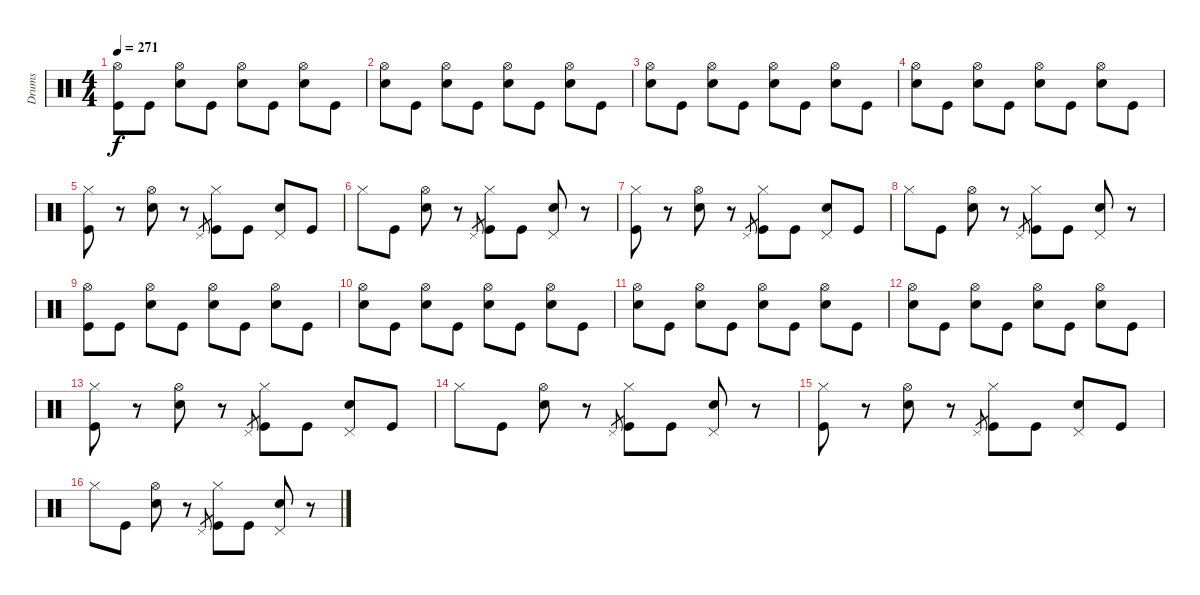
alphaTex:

\track ("Drums" "Drums") {instrument percussion}
\staff {score}
\articulation defaults
\ts (4 4)
\tempo 271
\clef neutral
\ks c
("Hi-Hat (open)" "Kick (hit)").8{dy f} "Kick (hit)".8 ("Hi-Hat (open)" "Electric Snare (hit)").8 "Kick (hit)".8 ("Hi-Hat (open)" "Electric Snare (hit)").8 "Kick (hit)".8 ("Hi-Hat (open)" "Electric Snare (hit)").8 "Kick (hit)".8 |
("Hi-Hat (open)" "Electric Snare (hit)").8 "Kick (hit)".8 ("Hi-Hat (open)" "Electric Snare (hit)").8 "Kick (hit)".8 ("Hi-Hat (open)" "Electric Snare (hit)").8 "Kick (hit)".8 ("Hi-Hat (open)" "Electric Snare (hit)").8 "Kick (hit)".8 |
("Hi-Hat (open)" "Electric Snare (hit)").8 "Kick (hit)".8 ("Hi-Hat (open)" "Electric Snare (hit)").8 "Kick (hit)".8 ("Hi-Hat (open)" "Electric Snare (hit)").8 "Kick (hit)".8 ("Hi-Hat (open)" "Electric Snare (hit)").8 "Kick (hit)".8 |
("Hi-Hat (open)" "Electric Snare (hit)").8 "Kick (hit)".8 ("Hi-Hat (open)" "Electric Snare (hit)").8 "Kick (hit)".8 ("Hi-Hat (open)" "Electric Snare (hit)").8 "Kick (hit)".8 ("Hi-Hat (open)" "Electric Snare (hit)").8 "Kick (hit)".8 |
("Hi-Hat (closed)" "Kick (hit)").8 r.8 ("Hi-Hat (open)" "Electric Snare (hit)").8 r.8 "Pedal Hi-Hat (hit)".8{gr} ("Hi-Hat (closed)" "Kick (hit)").8 "Kick (hit)".8 ("Pedal Hi-Hat (hit)" "Electric Snare (hit)").8 "Kick (hit)".8 |
"Hi-Hat (closed)".8 "Kick (hit)".8 ("Hi-Hat (open)" "Electric Snare (hit)").8 r.8 "Pedal Hi-Hat (hit)".8{gr} ("Hi-Hat (closed)" "Kick (hit)").8 "Kick (hit)".8 ("Pedal Hi-Hat (hit)" "Electric Snare (hit)").8 r.8 |
("Hi-Hat (closed)" "Kick (hit)").8 r.8 ("Hi-Hat (open)" "Electric Snare (hit)").8 r.8 "Pedal Hi-Hat (hit)".8{gr} ("Hi-Hat (closed)" "Kick (hit)").8 "Kick (hit)".8 ("Pedal Hi-Hat (hit)" "Electric Snare (hit)").8 "Kick (hit)".8 |
"Hi-Hat (closed)".8 "Kick (hit)".8 ("Hi-Hat (open)" "Electric Snare (hit)").8 r.8 "Pedal Hi-Hat (hit)".8{gr} ("Hi-Hat (closed)" "Kick (hit)").8 "Kick (hit)".8 ("Pedal Hi-Hat (hit)" "Electric Snare (hit)").8 r.8 |
("Hi-Hat (open)" "Kick (hit)").8 "Kick (hit)".8 ("Hi-Hat (open)" "Electric Snare (hit)").8 "Kick (hit)".8 ("Hi-Hat (open)" "Electric Snare (hit)").8 "Kick (hit)".8 ("Hi-Hat (open)" "Electric Snare (hit)").8 "Kick (hit)".8 |
("Hi-Hat (open)" "Electric Snare (hit)").8 "Kick (hit)".8 ("Hi-Hat (open)" "Electric Snare (hit)").8 "Kick (hit)".8 ("Hi-Hat (open)" "Electric Snare (hit)").8 "Kick (hit)".8 ("Hi-Hat (open)" "Electric Snare (hit)").8 "Kick (hit)".8 |
("Hi-Hat (open)" "Electric Snare (hit)").8 "Kick (hit)".8 ("Hi-Hat (open)" "Electric Snare (hit)").8 "Kick (hit)".8 ("Hi-Hat (open)" "Electric Snare (hit)").8 "Kick (hit)".8 ("Hi-Hat (open)" "Electric Snare (hit)").8 "Kick (hit)".8 |
("Hi-Hat (open)" "Electric Snare (hit)").8 "Kick (hit)".8 ("Hi-Hat (open)" "Electric Snare (hit)").8 "Kick (hit)".8 ("Hi-Hat (open)" "Electric Snare (hit)").8 "Kick (hit)".8 ("Hi-Hat (open)" "Electric Snare (hit)").8 "Kick (hit)".8 |
("Hi-Hat (closed)" "Kick (hit)").8 r.8 ("Hi-Hat (open)" "Electric Snare (hit)").8 r.8 "Pedal Hi-Hat (hit)".8{gr} ("Hi-Hat (closed)" "Kick (hit)").8 "Kick (hit)".8 ("Pedal Hi-Hat (hit)" "Electric Snare (hit)").8 "Kick (hit)".8 |
"Hi-Hat (closed)".8 "Kick (hit)".8 ("Hi-Hat (open)" "Electric Snare (hit)").8 r.8 "Pedal Hi-Hat (hit)".8{gr} ("Hi-Hat (closed)" "Kick (hit)").8 "Kick (hit)".8 ("Pedal Hi-Hat (hit)" "Electric Snare (hit)").8 r.8 |
("Hi-Hat (closed)" "Kick (hit)").8 r.8 ("Hi-Hat (open)" "Electric Snare (hit)").8 r.8 "Pedal Hi-Hat (hit)".8{gr} ("Hi-Hat (closed)" "Kick (hit)").8 "Kick (hit)".8 ("Pedal Hi-Hat (hit)" "Electric Snare (hit)").8 "Kick (hit)".8 |
"Hi-Hat (closed)".8 "Kick (hit)".8 ("Hi-Hat (open)" "Electric Snare (hit)").8 r.8 "Pedal Hi-Hat (hit)".8{gr} ("Hi-Hat (closed)" "Kick (hit)").8 "Kick (hit)".8 ("Pedal Hi-Hat (hit)" "Electric Snare (hit)").8 r.8
